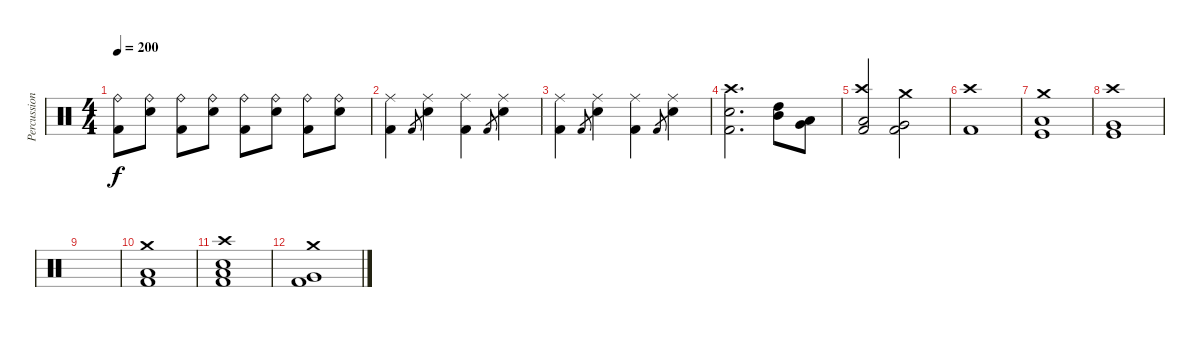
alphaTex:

\track ("Percussion" "Percussion") {instrument percussion}
\staff {score}
\articulation defaults
\ts (4 4)
\tempo 200
\clef neutral
\ks c
("Ride (bell)" "Kick (hit) 2").8{dy f} ("Ride (bell)" "Electric Snare (hit)").8 ("Ride (bell)" "Kick (hit) 2").8 ("Ride (bell)" "Electric Snare (hit)").8 ("Ride (bell)" "Kick (hit) 2").8 ("Ride (bell)" "Electric Snare (hit)").8 ("Ride (bell)" "Kick (hit) 2").8 ("Ride (bell)" "Electric Snare (hit)").8 |
("Ride (middle)" "Kick (hit) 2").4 "Kick (hit) 2".8{gr} ("Ride (middle)" "Electric Snare (hit)").4 ("Ride (middle)" "Kick (hit) 2").4 "Kick (hit) 2".8{gr} ("Ride (middle)" "Electric Snare (hit)").4 |
("Ride (middle)" "Kick (hit) 2").4 "Kick (hit) 2".8{gr} ("Ride (middle)" "Electric Snare (hit)").4 ("Ride (middle)" "Kick (hit) 2").4 "Kick (hit) 2".8{gr} ("Ride (middle)" "Electric Snare (hit)").4 |
("Crash high (hit)" "Electric Snare (hit)" "Kick (hit) 2").2{d} ("High Tom (hit)" "Mid Tom (hit)").8 ("Low Tom (hit)" "Very Low Tom (hit)").8 |
("Crash high (hit)" "Low Floor Tom (hit)" "Kick (hit) 2").2 ("Crash medium (hit)" "Very Low Tom (hit)" "Kick (hit) 2").2 |
("Crash high (hit)" "Kick (hit) 2").1 |
("Crash medium (hit)" "Low Tom (hit)" "Kick (hit)").1 |
("Crash high (hit)" "Very Low Tom (hit)" "Kick (hit)").1 |
|
("Crash medium (hit)" "Low Floor Tom (hit)" "Kick (hit) 2").1 |
("Crash high (hit)" "Electric Snare (hit)" "Low Tom (hit)" "Kick (hit) 2").1 |
("Crash medium (hit)" "Very Low Tom (hit)" "Kick (hit) 2").1
